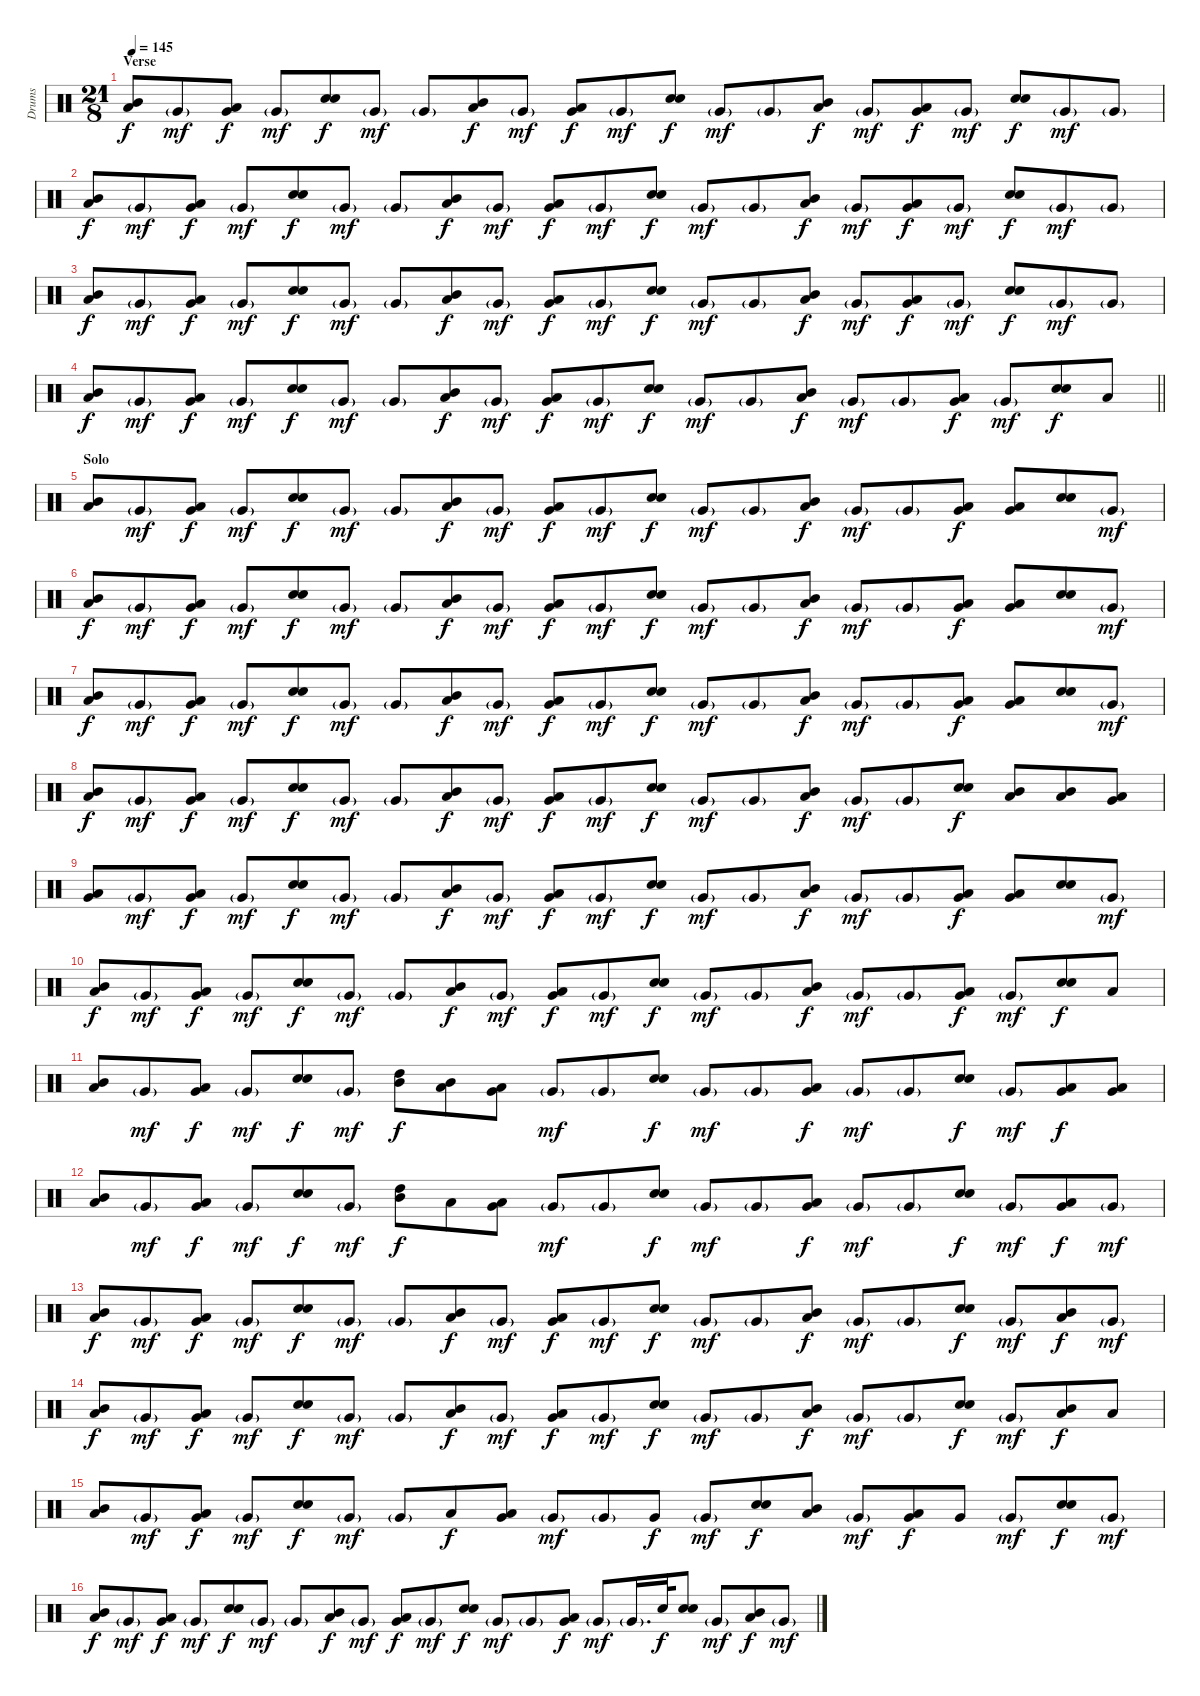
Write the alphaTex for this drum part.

\track ("Drums" "Drums") {instrument percussion}
\staff {score}
\articulation defaults
\ts (21 8)
\section ("" "Verse")
\tempo 145
\clef neutral
\ks c
("Mid Tom (hit)" "Low Tom (hit)").8{dy f} "Very Low Tom (hit)"{g}.8{dy mf} ("Low Tom (hit)" "Very Low Tom (hit)").8{dy f} "Very Low Tom (hit)"{g}.8{dy mf} ("Snare (hit) 2" "Electric Snare (hit)").8{dy f} "Very Low Tom (hit)"{g}.8{dy mf} "Very Low Tom (hit)"{g}.8 ("Mid Tom (hit)" "Low Tom (hit)").8{dy f} "Very Low Tom (hit)"{g}.8{dy mf} ("Low Tom (hit)" "Very Low Tom (hit)").8{dy f} "Very Low Tom (hit)"{g}.8{dy mf} ("Snare (hit) 2" "Electric Snare (hit)").8{dy f} "Very Low Tom (hit)"{g}.8{dy mf} "Very Low Tom (hit)"{g}.8 ("Mid Tom (hit)" "Low Tom (hit)").8{dy f} "Very Low Tom (hit)"{g}.8{dy mf} ("Low Tom (hit)" "Very Low Tom (hit)").8{dy f} "Very Low Tom (hit)"{g}.8{dy mf} ("Snare (hit) 2" "Electric Snare (hit)").8{dy f} "Very Low Tom (hit)"{g}.8{dy mf} "Very Low Tom (hit)"{g}.8 |
("Mid Tom (hit)" "Low Tom (hit)").8{dy f} "Very Low Tom (hit)"{g}.8{dy mf} ("Low Tom (hit)" "Very Low Tom (hit)").8{dy f} "Very Low Tom (hit)"{g}.8{dy mf} ("Snare (hit) 2" "Electric Snare (hit)").8{dy f} "Very Low Tom (hit)"{g}.8{dy mf} "Very Low Tom (hit)"{g}.8 ("Mid Tom (hit)" "Low Tom (hit)").8{dy f} "Very Low Tom (hit)"{g}.8{dy mf} ("Low Tom (hit)" "Very Low Tom (hit)").8{dy f} "Very Low Tom (hit)"{g}.8{dy mf} ("Snare (hit) 2" "Electric Snare (hit)").8{dy f} "Very Low Tom (hit)"{g}.8{dy mf} "Very Low Tom (hit)"{g}.8 ("Mid Tom (hit)" "Low Tom (hit)").8{dy f} "Very Low Tom (hit)"{g}.8{dy mf} ("Low Tom (hit)" "Very Low Tom (hit)").8{dy f} "Very Low Tom (hit)"{g}.8{dy mf} ("Snare (hit) 2" "Electric Snare (hit)").8{dy f} "Very Low Tom (hit)"{g}.8{dy mf} "Very Low Tom (hit)"{g}.8 |
("Mid Tom (hit)" "Low Tom (hit)").8{dy f} "Very Low Tom (hit)"{g}.8{dy mf} ("Low Tom (hit)" "Very Low Tom (hit)").8{dy f} "Very Low Tom (hit)"{g}.8{dy mf} ("Snare (hit) 2" "Electric Snare (hit)").8{dy f} "Very Low Tom (hit)"{g}.8{dy mf} "Very Low Tom (hit)"{g}.8 ("Mid Tom (hit)" "Low Tom (hit)").8{dy f} "Very Low Tom (hit)"{g}.8{dy mf} ("Low Tom (hit)" "Very Low Tom (hit)").8{dy f} "Very Low Tom (hit)"{g}.8{dy mf} ("Snare (hit) 2" "Electric Snare (hit)").8{dy f} "Very Low Tom (hit)"{g}.8{dy mf} "Very Low Tom (hit)"{g}.8 ("Mid Tom (hit)" "Low Tom (hit)").8{dy f} "Very Low Tom (hit)"{g}.8{dy mf} ("Low Tom (hit)" "Very Low Tom (hit)").8{dy f} "Very Low Tom (hit)"{g}.8{dy mf} ("Snare (hit) 2" "Electric Snare (hit)").8{dy f} "Very Low Tom (hit)"{g}.8{dy mf} "Very Low Tom (hit)"{g}.8 |
\barLineRight lightlight
("Mid Tom (hit)" "Low Tom (hit)").8{dy f} "Very Low Tom (hit)"{g}.8{dy mf} ("Low Tom (hit)" "Very Low Tom (hit)").8{dy f} "Very Low Tom (hit)"{g}.8{dy mf} ("Snare (hit) 2" "Electric Snare (hit)").8{dy f} "Very Low Tom (hit)"{g}.8{dy mf} "Very Low Tom (hit)"{g}.8 ("Mid Tom (hit)" "Low Tom (hit)").8{dy f} "Very Low Tom (hit)"{g}.8{dy mf} ("Low Tom (hit)" "Very Low Tom (hit)").8{dy f} "Very Low Tom (hit)"{g}.8{dy mf} ("Snare (hit) 2" "Electric Snare (hit)").8{dy f} "Very Low Tom (hit)"{g}.8{dy mf} "Very Low Tom (hit)"{g}.8 ("Mid Tom (hit)" "Low Tom (hit)").8{dy f} "Very Low Tom (hit)"{g}.8{dy mf} "Very Low Tom (hit)"{g}.8 ("Low Tom (hit)" "Very Low Tom (hit)").8{dy f} "Very Low Tom (hit)"{g}.8{dy mf} ("Snare (hit) 2" "Electric Snare (hit)").8{dy f} "Low Tom (hit)".8 |
\section ("" "Solo")
("Mid Tom (hit)" "Low Tom (hit)").8 "Very Low Tom (hit)"{g}.8{dy mf} ("Low Tom (hit)" "Very Low Tom (hit)").8{dy f} "Very Low Tom (hit)"{g}.8{dy mf} ("Snare (hit) 2" "Electric Snare (hit)").8{dy f} "Very Low Tom (hit)"{g}.8{dy mf} "Very Low Tom (hit)"{g}.8 ("Mid Tom (hit)" "Low Tom (hit)").8{dy f} "Very Low Tom (hit)"{g}.8{dy mf} ("Low Tom (hit)" "Very Low Tom (hit)").8{dy f} "Very Low Tom (hit)"{g}.8{dy mf} ("Snare (hit) 2" "Electric Snare (hit)").8{dy f} "Very Low Tom (hit)"{g}.8{dy mf} "Very Low Tom (hit)"{g}.8 ("Mid Tom (hit)" "Low Tom (hit)").8{dy f} "Very Low Tom (hit)"{g}.8{dy mf} "Very Low Tom (hit)"{g}.8 ("Low Tom (hit)" "Very Low Tom (hit)").8{dy f} ("Low Tom (hit)" "Very Low Tom (hit)").8 ("Snare (hit) 2" "Electric Snare (hit)").8 "Very Low Tom (hit)"{g}.8{dy mf} |
("Mid Tom (hit)" "Low Tom (hit)").8{dy f} "Very Low Tom (hit)"{g}.8{dy mf} ("Low Tom (hit)" "Very Low Tom (hit)").8{dy f} "Very Low Tom (hit)"{g}.8{dy mf} ("Snare (hit) 2" "Electric Snare (hit)").8{dy f} "Very Low Tom (hit)"{g}.8{dy mf} "Very Low Tom (hit)"{g}.8 ("Mid Tom (hit)" "Low Tom (hit)").8{dy f} "Very Low Tom (hit)"{g}.8{dy mf} ("Low Tom (hit)" "Very Low Tom (hit)").8{dy f} "Very Low Tom (hit)"{g}.8{dy mf} ("Snare (hit) 2" "Electric Snare (hit)").8{dy f} "Very Low Tom (hit)"{g}.8{dy mf} "Very Low Tom (hit)"{g}.8 ("Mid Tom (hit)" "Low Tom (hit)").8{dy f} "Very Low Tom (hit)"{g}.8{dy mf} "Very Low Tom (hit)"{g}.8 ("Low Tom (hit)" "Very Low Tom (hit)").8{dy f} ("Low Tom (hit)" "Very Low Tom (hit)").8 ("Snare (hit) 2" "Electric Snare (hit)").8 "Very Low Tom (hit)"{g}.8{dy mf} |
("Mid Tom (hit)" "Low Tom (hit)").8{dy f} "Very Low Tom (hit)"{g}.8{dy mf} ("Low Tom (hit)" "Very Low Tom (hit)").8{dy f} "Very Low Tom (hit)"{g}.8{dy mf} ("Snare (hit) 2" "Electric Snare (hit)").8{dy f} "Very Low Tom (hit)"{g}.8{dy mf} "Very Low Tom (hit)"{g}.8 ("Mid Tom (hit)" "Low Tom (hit)").8{dy f} "Very Low Tom (hit)"{g}.8{dy mf} ("Low Tom (hit)" "Very Low Tom (hit)").8{dy f} "Very Low Tom (hit)"{g}.8{dy mf} ("Snare (hit) 2" "Electric Snare (hit)").8{dy f} "Very Low Tom (hit)"{g}.8{dy mf} "Very Low Tom (hit)"{g}.8 ("Mid Tom (hit)" "Low Tom (hit)").8{dy f} "Very Low Tom (hit)"{g}.8{dy mf} "Very Low Tom (hit)"{g}.8 ("Low Tom (hit)" "Very Low Tom (hit)").8{dy f} ("Low Tom (hit)" "Very Low Tom (hit)").8 ("Snare (hit) 2" "Electric Snare (hit)").8 "Very Low Tom (hit)"{g}.8{dy mf} |
("Mid Tom (hit)" "Low Tom (hit)").8{dy f} "Very Low Tom (hit)"{g}.8{dy mf} ("Low Tom (hit)" "Very Low Tom (hit)").8{dy f} "Very Low Tom (hit)"{g}.8{dy mf} ("Snare (hit) 2" "Electric Snare (hit)").8{dy f} "Very Low Tom (hit)"{g}.8{dy mf} "Very Low Tom (hit)"{g}.8 ("Mid Tom (hit)" "Low Tom (hit)").8{dy f} "Very Low Tom (hit)"{g}.8{dy mf} ("Low Tom (hit)" "Very Low Tom (hit)").8{dy f} "Very Low Tom (hit)"{g}.8{dy mf} ("Snare (hit) 2" "Electric Snare (hit)").8{dy f} "Very Low Tom (hit)"{g}.8{dy mf} "Very Low Tom (hit)"{g}.8 ("Mid Tom (hit)" "Low Tom (hit)").8{dy f} "Very Low Tom (hit)"{g}.8{dy mf} "Very Low Tom (hit)"{g}.8 ("Snare (hit) 2" "Electric Snare (hit)").8{dy f} ("Mid Tom (hit)" "Low Tom (hit)").8 ("Mid Tom (hit)" "Low Tom (hit)").8 ("Low Tom (hit)" "Very Low Tom (hit)").8 |
("Low Tom (hit)" "Very Low Tom (hit)").8 "Very Low Tom (hit)"{g}.8{dy mf} ("Low Tom (hit)" "Very Low Tom (hit)").8{dy f} "Very Low Tom (hit)"{g}.8{dy mf} ("Snare (hit) 2" "Electric Snare (hit)").8{dy f} "Very Low Tom (hit)"{g}.8{dy mf} "Very Low Tom (hit)"{g}.8 ("Mid Tom (hit)" "Low Tom (hit)").8{dy f} "Very Low Tom (hit)"{g}.8{dy mf} ("Low Tom (hit)" "Very Low Tom (hit)").8{dy f} "Very Low Tom (hit)"{g}.8{dy mf} ("Snare (hit) 2" "Electric Snare (hit)").8{dy f} "Very Low Tom (hit)"{g}.8{dy mf} "Very Low Tom (hit)"{g}.8 ("Mid Tom (hit)" "Low Tom (hit)").8{dy f} "Very Low Tom (hit)"{g}.8{dy mf} "Very Low Tom (hit)"{g}.8 ("Low Tom (hit)" "Very Low Tom (hit)").8{dy f} ("Low Tom (hit)" "Very Low Tom (hit)").8 ("Snare (hit) 2" "Electric Snare (hit)").8 "Very Low Tom (hit)"{g}.8{dy mf} |
("Mid Tom (hit)" "Low Tom (hit)").8{dy f} "Very Low Tom (hit)"{g}.8{dy mf} ("Low Tom (hit)" "Very Low Tom (hit)").8{dy f} "Very Low Tom (hit)"{g}.8{dy mf} ("Snare (hit) 2" "Electric Snare (hit)").8{dy f} "Very Low Tom (hit)"{g}.8{dy mf} "Very Low Tom (hit)"{g}.8 ("Mid Tom (hit)" "Low Tom (hit)").8{dy f} "Very Low Tom (hit)"{g}.8{dy mf} ("Low Tom (hit)" "Very Low Tom (hit)").8{dy f} "Very Low Tom (hit)"{g}.8{dy mf} ("Snare (hit) 2" "Electric Snare (hit)").8{dy f} "Very Low Tom (hit)"{g}.8{dy mf} "Very Low Tom (hit)"{g}.8 ("Mid Tom (hit)" "Low Tom (hit)").8{dy f} "Very Low Tom (hit)"{g}.8{dy mf} "Very Low Tom (hit)"{g}.8 ("Low Tom (hit)" "Very Low Tom (hit)").8{dy f} "Very Low Tom (hit)"{g}.8{dy mf} ("Snare (hit) 2" "Electric Snare (hit)").8{dy f} "Low Tom (hit)".8 |
("Mid Tom (hit)" "Low Tom (hit)").8 "Very Low Tom (hit)"{g}.8{dy mf} ("Low Tom (hit)" "Very Low Tom (hit)").8{dy f} "Very Low Tom (hit)"{g}.8{dy mf} ("Snare (hit) 2" "Electric Snare (hit)").8{dy f} "Very Low Tom (hit)"{g}.8{dy mf} ("High Tom (hit)" "Mid Tom (hit)").8{dy f} ("Mid Tom (hit)" "Low Tom (hit)").8 ("Low Tom (hit)" "Very Low Tom (hit)").8 "Very Low Tom (hit)"{g}.8{dy mf} "Very Low Tom (hit)"{g}.8 ("Snare (hit) 2" "Electric Snare (hit)").8{dy f} "Very Low Tom (hit)"{g}.8{dy mf} "Very Low Tom (hit)"{g}.8 ("Low Tom (hit)" "Very Low Tom (hit)").8{dy f} "Very Low Tom (hit)"{g}.8{dy mf} "Very Low Tom (hit)"{g}.8 ("Snare (hit) 2" "Electric Snare (hit)").8{dy f} "Very Low Tom (hit)"{g}.8{dy mf} ("Low Tom (hit)" "Very Low Tom (hit)").8{dy f} ("Low Tom (hit)" "Very Low Tom (hit)").8 |
("Mid Tom (hit)" "Low Tom (hit)").8 "Very Low Tom (hit)"{g}.8{dy mf} ("Low Tom (hit)" "Very Low Tom (hit)").8{dy f} "Very Low Tom (hit)"{g}.8{dy mf} ("Snare (hit) 2" "Electric Snare (hit)").8{dy f} "Very Low Tom (hit)"{g}.8{dy mf} ("High Tom (hit)" "Mid Tom (hit)").8{dy f} "Low Tom (hit)".8 ("Low Tom (hit)" "Very Low Tom (hit)").8 "Very Low Tom (hit)"{g}.8{dy mf} "Very Low Tom (hit)"{g}.8 ("Snare (hit) 2" "Electric Snare (hit)").8{dy f} "Very Low Tom (hit)"{g}.8{dy mf} "Very Low Tom (hit)"{g}.8 ("Low Tom (hit)" "Very Low Tom (hit)").8{dy f} "Very Low Tom (hit)"{g}.8{dy mf} "Very Low Tom (hit)"{g}.8 ("Snare (hit) 2" "Electric Snare (hit)").8{dy f} "Very Low Tom (hit)"{g}.8{dy mf} ("Low Tom (hit)" "Very Low Tom (hit)").8{dy f} "Very Low Tom (hit)"{g}.8{dy mf} |
("Mid Tom (hit)" "Low Tom (hit)").8{dy f} "Very Low Tom (hit)"{g}.8{dy mf} ("Low Tom (hit)" "Very Low Tom (hit)").8{dy f} "Very Low Tom (hit)"{g}.8{dy mf} ("Snare (hit) 2" "Electric Snare (hit)").8{dy f} "Very Low Tom (hit)"{g}.8{dy mf} "Very Low Tom (hit)"{g}.8 ("Mid Tom (hit)" "Low Tom (hit)").8{dy f} "Very Low Tom (hit)"{g}.8{dy mf} ("Low Tom (hit)" "Very Low Tom (hit)").8{dy f} "Very Low Tom (hit)"{g}.8{dy mf} ("Snare (hit) 2" "Electric Snare (hit)").8{dy f} "Very Low Tom (hit)"{g}.8{dy mf} "Very Low Tom (hit)"{g}.8 ("Mid Tom (hit)" "Low Tom (hit)").8{dy f} "Very Low Tom (hit)"{g}.8{dy mf} "Very Low Tom (hit)"{g}.8 ("Snare (hit) 2" "Electric Snare (hit)").8{dy f} "Very Low Tom (hit)"{g}.8{dy mf} ("Mid Tom (hit)" "Low Tom (hit)").8{dy f} "Very Low Tom (hit)"{g}.8{dy mf} |
("Mid Tom (hit)" "Low Tom (hit)").8{dy f} "Very Low Tom (hit)"{g}.8{dy mf} ("Low Tom (hit)" "Very Low Tom (hit)").8{dy f} "Very Low Tom (hit)"{g}.8{dy mf} ("Snare (hit) 2" "Electric Snare (hit)").8{dy f} "Very Low Tom (hit)"{g}.8{dy mf} "Very Low Tom (hit)"{g}.8 ("Mid Tom (hit)" "Low Tom (hit)").8{dy f} "Very Low Tom (hit)"{g}.8{dy mf} ("Low Tom (hit)" "Very Low Tom (hit)").8{dy f} "Very Low Tom (hit)"{g}.8{dy mf} ("Snare (hit) 2" "Electric Snare (hit)").8{dy f} "Very Low Tom (hit)"{g}.8{dy mf} "Very Low Tom (hit)"{g}.8 ("Mid Tom (hit)" "Low Tom (hit)").8{dy f} "Very Low Tom (hit)"{g}.8{dy mf} "Very Low Tom (hit)"{g}.8 ("Snare (hit) 2" "Electric Snare (hit)").8{dy f} "Very Low Tom (hit)"{g}.8{dy mf} ("Mid Tom (hit)" "Low Tom (hit)").8{dy f} "Low Tom (hit)".8 |
("Mid Tom (hit)" "Low Tom (hit)").8 "Very Low Tom (hit)"{g}.8{dy mf} ("Low Tom (hit)" "Very Low Tom (hit)").8{dy f} "Very Low Tom (hit)"{g}.8{dy mf} ("Snare (hit) 2" "Electric Snare (hit)").8{dy f} "Very Low Tom (hit)"{g}.8{dy mf} "Very Low Tom (hit)"{g}.8 "Low Tom (hit)".8{dy f} ("Low Tom (hit)" "Very Low Tom (hit)").8 "Very Low Tom (hit)"{g}.8{dy mf} "Very Low Tom (hit)"{g}.8 "Very Low Tom (hit)".8{dy f} "Very Low Tom (hit)"{g}.8{dy mf} ("Snare (hit) 2" "Electric Snare (hit)").8{dy f} ("Mid Tom (hit)" "Low Tom (hit)").8 "Very Low Tom (hit)"{g}.8{dy mf} ("Low Tom (hit)" "Very Low Tom (hit)").8{dy f} "Very Low Tom (hit)".8 "Very Low Tom (hit)"{g}.8{dy mf} ("Snare (hit) 2" "Electric Snare (hit)").8{dy f} "Very Low Tom (hit)"{g}.8{dy mf} |
("Mid Tom (hit)" "Low Tom (hit)").8{dy f} "Very Low Tom (hit)"{g}.8{dy mf} ("Low Tom (hit)" "Very Low Tom (hit)").8{dy f} "Very Low Tom (hit)"{g}.8{dy mf} ("Snare (hit) 2" "Electric Snare (hit)").8{dy f} "Very Low Tom (hit)"{g}.8{dy mf} "Very Low Tom (hit)"{g}.8 ("Mid Tom (hit)" "Low Tom (hit)").8{dy f} "Very Low Tom (hit)"{g}.8{dy mf} ("Low Tom (hit)" "Very Low Tom (hit)").8{dy f} "Very Low Tom (hit)"{g}.8{dy mf} ("Snare (hit) 2" "Electric Snare (hit)").8{dy f} "Very Low Tom (hit)"{g}.8{dy mf} "Very Low Tom (hit)"{g}.8 ("Low Tom (hit)" "Very Low Tom (hit)").8{dy f} "Very Low Tom (hit)"{g}.8{dy mf} "Very Low Tom (hit)"{g}.16{d} "Snare (hit) 2".32{dy f} ("Snare (hit) 2" "Electric Snare (hit)").8 "Very Low Tom (hit)"{g}.8{dy mf} ("Mid Tom (hit)" "Low Tom (hit)").8{dy f} "Very Low Tom (hit)"{g}.8{dy mf}
